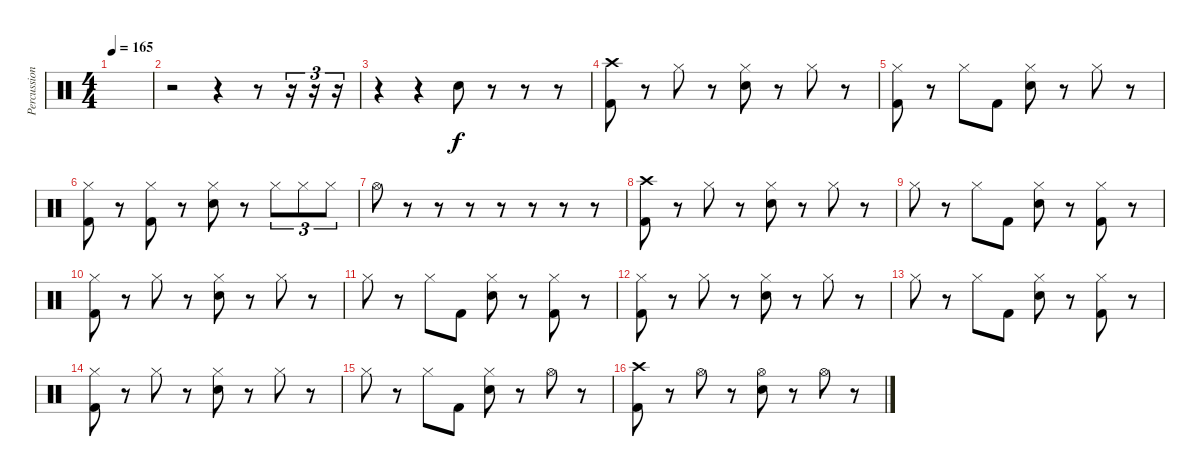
\track ("Percussion" "Percussion") {instrument percussion}
\staff {score}
\articulation defaults
\ts (4 4)
\tempo 165
\clef neutral
\ks c
|
r.2 r.4 r.8 r.16{tu (3 2)} r.16{tu (3 2)} r.16{tu (3 2)} |
r.4 r.4 "Electric Snare (hit)".8 r.8 r.8 r.8 |
("Crash high (hit)" "Kick (hit) 2").8 r.8 "Hi-Hat (closed)".8 r.8 ("Hi-Hat (closed)" "Electric Snare (hit)").8 r.8 "Hi-Hat (closed)".8 r.8 |
("Hi-Hat (closed)" "Kick (hit) 2").8 r.8 "Hi-Hat (closed)".8 "Kick (hit) 2".8 ("Hi-Hat (closed)" "Electric Snare (hit)").8 r.8 "Hi-Hat (closed)".8 r.8 |
("Hi-Hat (closed)" "Kick (hit) 2").8 r.8 ("Hi-Hat (closed)" "Kick (hit) 2").8 r.8 ("Hi-Hat (closed)" "Electric Snare (hit)").8 r.8 "Hi-Hat (closed)".8{tu (3 2)} "Hi-Hat (closed)".8{tu (3 2)} "Hi-Hat (closed)".8{tu (3 2)} |
"Hi-Hat (open)".8 r.8 r.8 r.8 r.8 r.8 r.8 r.8 |
("Crash high (hit)" "Kick (hit) 2").8 r.8 "Hi-Hat (closed)".8 r.8 ("Hi-Hat (closed)" "Electric Snare (hit)").8 r.8 "Hi-Hat (closed)".8 r.8 |
"Hi-Hat (closed)".8 r.8 "Hi-Hat (closed)".8 "Kick (hit) 2".8 ("Hi-Hat (closed)" "Electric Snare (hit)").8 r.8 ("Hi-Hat (closed)" "Kick (hit) 2").8 r.8 |
("Hi-Hat (closed)" "Kick (hit) 2").8 r.8 "Hi-Hat (closed)".8 r.8 ("Hi-Hat (closed)" "Electric Snare (hit)").8 r.8 "Hi-Hat (closed)".8 r.8 |
"Hi-Hat (closed)".8 r.8 "Hi-Hat (closed)".8 "Kick (hit) 2".8 ("Hi-Hat (closed)" "Electric Snare (hit)").8 r.8 ("Hi-Hat (closed)" "Kick (hit) 2").8 r.8 |
("Hi-Hat (closed)" "Kick (hit) 2").8 r.8 "Hi-Hat (closed)".8 r.8 ("Hi-Hat (closed)" "Electric Snare (hit)").8 r.8 "Hi-Hat (closed)".8 r.8 |
"Hi-Hat (closed)".8 r.8 "Hi-Hat (closed)".8 "Kick (hit) 2".8 ("Hi-Hat (closed)" "Electric Snare (hit)").8 r.8 ("Hi-Hat (closed)" "Kick (hit) 2").8 r.8 |
("Hi-Hat (closed)" "Kick (hit) 2").8 r.8 "Hi-Hat (closed)".8 r.8 ("Hi-Hat (closed)" "Electric Snare (hit)").8 r.8 "Hi-Hat (closed)".8 r.8 |
"Hi-Hat (closed)".8 r.8 "Hi-Hat (closed)".8 "Kick (hit) 2".8 ("Hi-Hat (closed)" "Electric Snare (hit)").8 r.8 "Hi-Hat (open)".8 r.8 |
("Crash high (hit)" "Kick (hit) 2").8 r.8 "Hi-Hat (open)".8 r.8 ("Hi-Hat (open)" "Electric Snare (hit)").8 r.8 "Hi-Hat (open)".8 r.8
